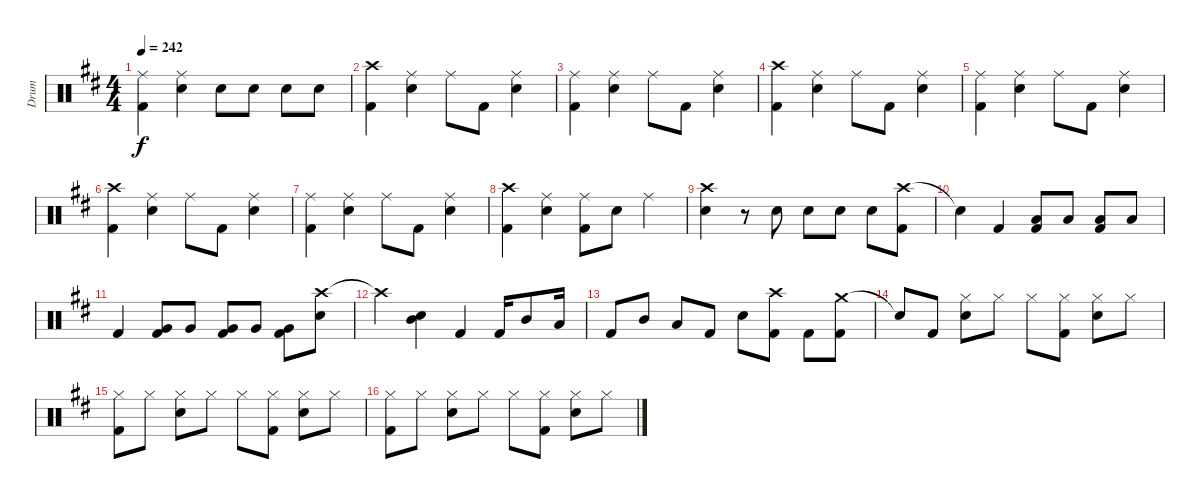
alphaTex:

\track ("Drum" "Drum") {instrument percussion}
\staff {score}
\articulation defaults
\ts (4 4)
\tempo 242
\clef neutral
\ks d
("Ride (middle)" "Kick (hit) 2").4{dy f} ("Ride (middle)" "Snare (hit) 2").4 "Snare (hit) 2".8 "Snare (hit) 2".8 "Snare (hit) 2".8 "Snare (hit) 2".8 |
("Crash high (hit)" "Kick (hit) 2").4 ("Ride (middle)" "Snare (hit) 2").4 "Ride (middle)".8 "Kick (hit) 2".8 ("Ride (middle)" "Snare (hit) 2").4 |
("Ride (middle)" "Kick (hit) 2").4 ("Ride (middle)" "Snare (hit) 2").4 "Ride (middle)".8 "Kick (hit) 2".8 ("Ride (middle)" "Snare (hit) 2").4 |
("Crash high (hit)" "Kick (hit) 2").4 ("Ride (middle)" "Snare (hit) 2").4 "Ride (middle)".8 "Kick (hit) 2".8 ("Ride (middle)" "Snare (hit) 2").4 |
("Ride (middle)" "Kick (hit) 2").4 ("Ride (middle)" "Snare (hit) 2").4 "Ride (middle)".8 "Kick (hit) 2".8 ("Ride (middle)" "Snare (hit) 2").4 |
("Crash high (hit)" "Kick (hit) 2").4 ("Ride (middle)" "Snare (hit) 2").4 "Ride (middle)".8 "Kick (hit) 2".8 ("Ride (middle)" "Snare (hit) 2").4 |
("Ride (middle)" "Kick (hit) 2").4 ("Ride (middle)" "Snare (hit) 2").4 "Ride (middle)".8 "Kick (hit) 2".8 ("Ride (middle)" "Snare (hit) 2").4 |
("Crash high (hit)" "Kick (hit) 2").4 ("Ride (middle)" "Snare (hit) 2").4 ("Ride (middle)" "Kick (hit) 2").8 "Snare (hit) 2".8 "Ride (middle)".4 |
("Crash high (hit)" "Snare (hit) 2").4 r.8 "Snare (hit) 2".8 "Snare (hit) 2".8 "Snare (hit) 2".8 "Snare (hit) 2".8 ("Crash high (hit)" "Kick (hit) 2").8 |
"Snare (hit)"{t}.4 "Kick (hit) 2".4 ("Low Tom (hit)" "Kick (hit) 2").8 "Low Tom (hit)".8 ("Low Tom (hit)" "Kick (hit) 2").8 "Low Tom (hit)".8 |
"Kick (hit) 2".4 ("Very Low Tom (hit)" "Kick (hit) 2").8 "Very Low Tom (hit)".8 ("Very Low Tom (hit)" "Kick (hit) 2").8 "Very Low Tom (hit)".8 ("Very Low Tom (hit)" "Kick (hit) 2").8 ("Crash high (hit)" "Snare (hit) 2").8 |
"Crash high (hit)"{t}.4 ("Mid Tom (hit)" "Snare (hit) 2").4 "Kick (hit) 2".4 "Kick (hit) 2".16 "Mid Tom (hit)".8 "Low Tom (hit)".16 |
"Kick (hit) 2".8 "Mid Tom (hit)".8 "Low Tom (hit)".8 "Kick (hit) 2".8 "Snare (hit) 2".8 ("Crash high (hit)" "Kick (hit) 2").8 "Kick (hit) 2".8 ("Crash medium (hit)" "Kick (hit) 2").8 |
"Snare (hit)"{t}.8 "Kick (hit) 2".8 ("Hi-Hat (closed)" "Snare (hit) 2").8 "Hi-Hat (closed)".8 "Hi-Hat (closed)".8 ("Hi-Hat (closed)" "Kick (hit) 2").8 ("Hi-Hat (closed)" "Snare (hit) 2").8 "Hi-Hat (closed)".8 |
("Hi-Hat (closed)" "Kick (hit) 2").8 "Hi-Hat (closed)".8 ("Hi-Hat (closed)" "Snare (hit) 2").8 "Hi-Hat (closed)".8 "Hi-Hat (closed)".8 ("Hi-Hat (closed)" "Kick (hit) 2").8 ("Hi-Hat (closed)" "Snare (hit) 2").8 "Hi-Hat (closed)".8 |
("Hi-Hat (closed)" "Kick (hit) 2").8 "Hi-Hat (closed)".8 ("Hi-Hat (closed)" "Snare (hit) 2").8 "Hi-Hat (closed)".8 "Hi-Hat (closed)".8 ("Hi-Hat (closed)" "Kick (hit) 2").8 ("Hi-Hat (closed)" "Snare (hit) 2").8 "Hi-Hat (closed)".8
